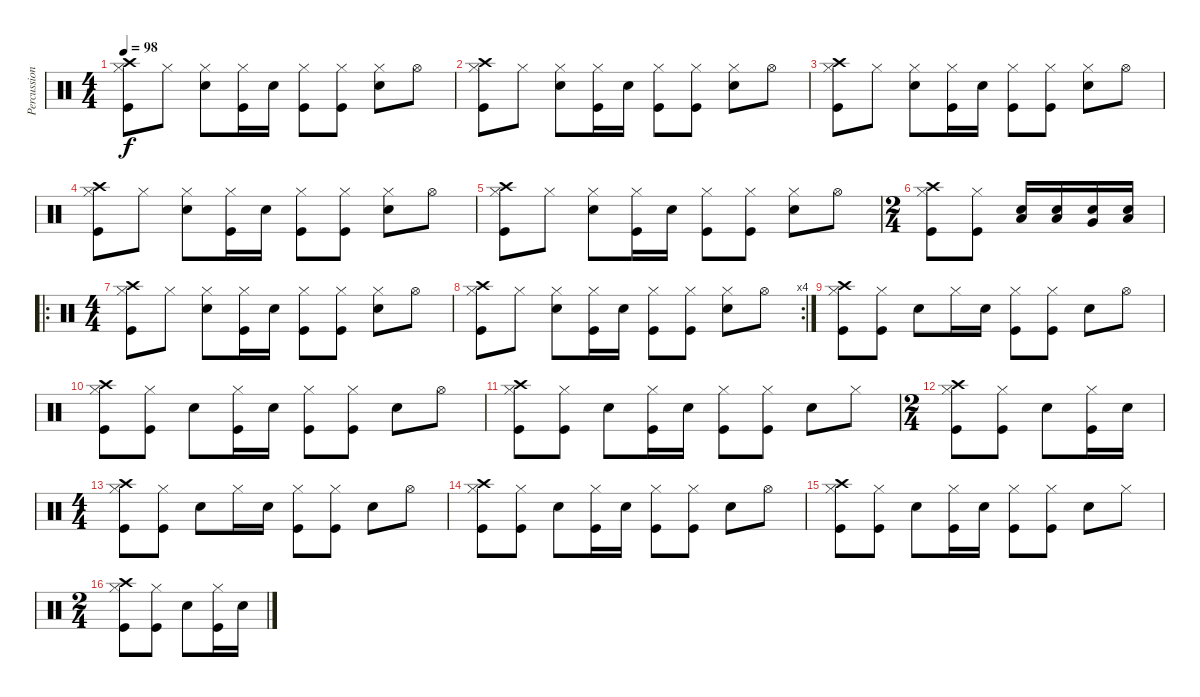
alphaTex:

\track ("Percussions" "Percussion") {instrument percussion}
\staff {score}
\articulation defaults
\ts (4 4)
\tempo 98
\clef neutral
\ks c
("Crash high (hit)" "Hi-Hat (closed)" "Kick (hit)").8{dy f} "Hi-Hat (closed)".8 ("Electric Snare (hit)" "Hi-Hat (closed)").8 ("Hi-Hat (closed)" "Kick (hit)").16 "Electric Snare (hit)".16 ("Hi-Hat (closed)" "Kick (hit)").8 ("Hi-Hat (closed)" "Kick (hit)").8 ("Electric Snare (hit)" "Hi-Hat (closed)").8 "Hi-Hat (open)".8 |
("Crash high (hit)" "Hi-Hat (closed)" "Kick (hit)").8 "Hi-Hat (closed)".8 ("Electric Snare (hit)" "Hi-Hat (closed)").8 ("Hi-Hat (closed)" "Kick (hit)").16 "Electric Snare (hit)".16 ("Hi-Hat (closed)" "Kick (hit)").8 ("Hi-Hat (closed)" "Kick (hit)").8 ("Electric Snare (hit)" "Hi-Hat (closed)").8 "Hi-Hat (open)".8 |
("Crash high (hit)" "Hi-Hat (closed)" "Kick (hit)").8 "Hi-Hat (closed)".8 ("Electric Snare (hit)" "Hi-Hat (closed)").8 ("Hi-Hat (closed)" "Kick (hit)").16 "Electric Snare (hit)".16 ("Hi-Hat (closed)" "Kick (hit)").8 ("Hi-Hat (closed)" "Kick (hit)").8 ("Electric Snare (hit)" "Hi-Hat (closed)").8 "Hi-Hat (open)".8 |
("Crash high (hit)" "Hi-Hat (closed)" "Kick (hit)").8 "Hi-Hat (closed)".8 ("Electric Snare (hit)" "Hi-Hat (closed)").8 ("Hi-Hat (closed)" "Kick (hit)").16 "Electric Snare (hit)".16 ("Hi-Hat (closed)" "Kick (hit)").8 ("Hi-Hat (closed)" "Kick (hit)").8 ("Electric Snare (hit)" "Hi-Hat (closed)").8 "Hi-Hat (open)".8 |
("Crash high (hit)" "Hi-Hat (closed)" "Kick (hit)").8 "Hi-Hat (closed)".8 ("Electric Snare (hit)" "Hi-Hat (closed)").8 ("Hi-Hat (closed)" "Kick (hit)").16 "Electric Snare (hit)".16 ("Hi-Hat (closed)" "Kick (hit)").8 ("Hi-Hat (closed)" "Kick (hit)").8 ("Electric Snare (hit)" "Hi-Hat (closed)").8 "Hi-Hat (open)".8 |
\ts (2 4)
("Crash high (hit)" "Hi-Hat (closed)" "Kick (hit)").8 ("Hi-Hat (closed)" "Kick (hit)").8 ("Low Tom (hit)" "Snare (hit) 2").16 ("Low Tom (hit)" "Snare (hit) 2").16 ("Very Low Tom (hit)" "Snare (hit) 2").16 ("Low Floor Tom (hit)" "Snare (hit) 2").16 |
\ro
\ts (4 4)
("Crash high (hit)" "Hi-Hat (closed)" "Kick (hit)").8 "Hi-Hat (closed)".8 ("Electric Snare (hit)" "Hi-Hat (closed)").8 ("Hi-Hat (closed)" "Kick (hit)").16 "Electric Snare (hit)".16 ("Hi-Hat (closed)" "Kick (hit)").8 ("Hi-Hat (closed)" "Kick (hit)").8 ("Electric Snare (hit)" "Hi-Hat (closed)").8 "Hi-Hat (open)".8 |
\rc 4
("Crash high (hit)" "Hi-Hat (closed)" "Kick (hit)").8 "Hi-Hat (closed)".8 ("Electric Snare (hit)" "Hi-Hat (closed)").8 ("Hi-Hat (closed)" "Kick (hit)").16 "Electric Snare (hit)".16 ("Hi-Hat (closed)" "Kick (hit)").8 ("Hi-Hat (closed)" "Kick (hit)").8 ("Electric Snare (hit)" "Hi-Hat (closed)").8 "Hi-Hat (open)".8 |
("Crash high (hit)" "Hi-Hat (closed)" "Kick (hit)").8 ("Hi-Hat (closed)" "Kick (hit)").8 "Electric Snare (hit)".8 "Hi-Hat (closed)".16 "Electric Snare (hit)".16 ("Hi-Hat (closed)" "Kick (hit)").8 ("Hi-Hat (closed)" "Kick (hit)").8 "Electric Snare (hit)".8 "Hi-Hat (open)".8 |
("Crash high (hit)" "Hi-Hat (closed)" "Kick (hit)").8 ("Hi-Hat (closed)" "Kick (hit)").8 "Electric Snare (hit)".8 ("Hi-Hat (closed)" "Kick (hit)").16 "Electric Snare (hit)".16 ("Hi-Hat (closed)" "Kick (hit)").8 ("Hi-Hat (closed)" "Kick (hit)").8 "Electric Snare (hit)".8 "Hi-Hat (open)".8 |
("Crash high (hit)" "Hi-Hat (closed)" "Kick (hit)").8 ("Hi-Hat (closed)" "Kick (hit)").8 "Electric Snare (hit)".8 ("Hi-Hat (closed)" "Kick (hit)").16 "Electric Snare (hit)".16 ("Hi-Hat (closed)" "Kick (hit)").8 ("Hi-Hat (closed)" "Kick (hit)").8 "Electric Snare (hit)".8 "Hi-Hat (closed)".8 |
\ts (2 4)
("Crash high (hit)" "Hi-Hat (closed)" "Kick (hit)").8 ("Hi-Hat (closed)" "Kick (hit)").8 "Electric Snare (hit)".8 ("Hi-Hat (closed)" "Kick (hit)").16 "Electric Snare (hit)".16 |
\ts (4 4)
("Crash high (hit)" "Hi-Hat (closed)" "Kick (hit)").8 ("Hi-Hat (closed)" "Kick (hit)").8 "Electric Snare (hit)".8 "Hi-Hat (closed)".16 "Electric Snare (hit)".16 ("Hi-Hat (closed)" "Kick (hit)").8 ("Hi-Hat (closed)" "Kick (hit)").8 "Electric Snare (hit)".8 "Hi-Hat (open)".8 |
("Crash high (hit)" "Hi-Hat (closed)" "Kick (hit)").8 ("Hi-Hat (closed)" "Kick (hit)").8 "Electric Snare (hit)".8 ("Hi-Hat (closed)" "Kick (hit)").16 "Electric Snare (hit)".16 ("Hi-Hat (closed)" "Kick (hit)").8 ("Hi-Hat (closed)" "Kick (hit)").8 "Electric Snare (hit)".8 "Hi-Hat (open)".8 |
("Crash high (hit)" "Hi-Hat (closed)" "Kick (hit)").8 ("Hi-Hat (closed)" "Kick (hit)").8 "Electric Snare (hit)".8 ("Hi-Hat (closed)" "Kick (hit)").16 "Electric Snare (hit)".16 ("Hi-Hat (closed)" "Kick (hit)").8 ("Hi-Hat (closed)" "Kick (hit)").8 "Electric Snare (hit)".8 "Hi-Hat (closed)".8 |
\ts (2 4)
("Crash high (hit)" "Hi-Hat (closed)" "Kick (hit)").8 ("Hi-Hat (closed)" "Kick (hit)").8 "Electric Snare (hit)".8 ("Hi-Hat (closed)" "Kick (hit)").16 "Electric Snare (hit)".16
